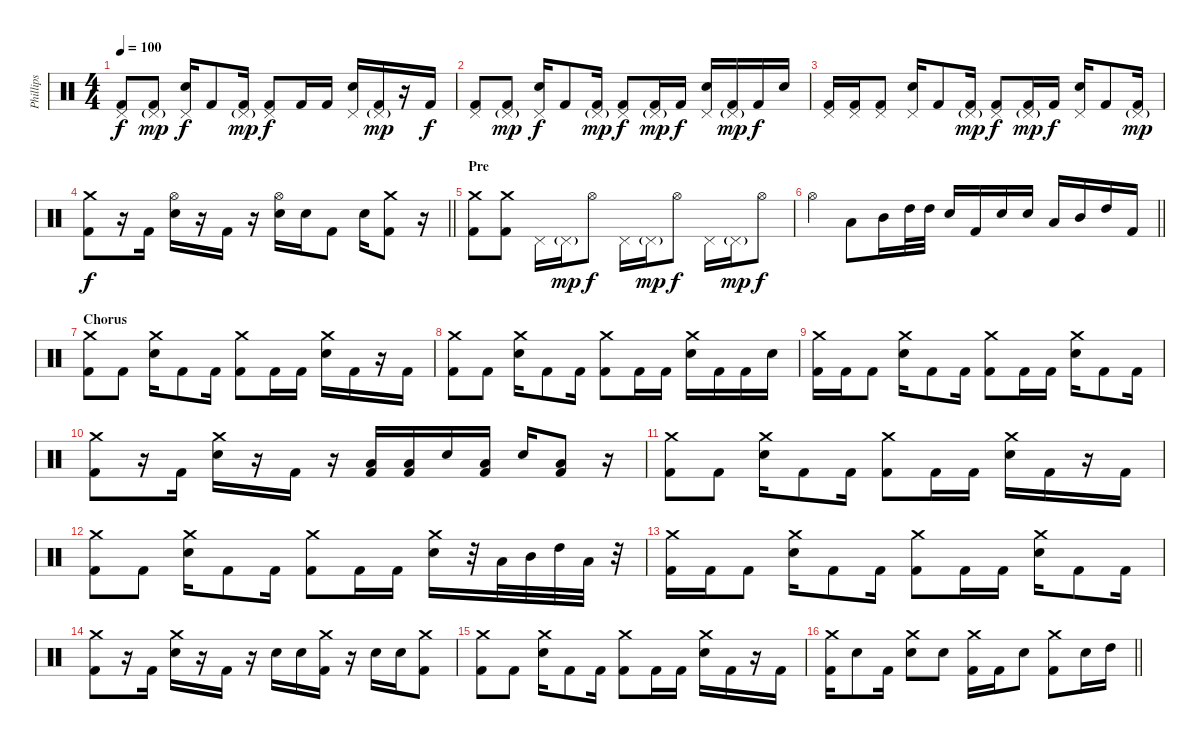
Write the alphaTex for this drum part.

\track ("Phillips" "Phillips") {instrument percussion}
\staff {score}
\articulation defaults
\ts (4 4)
\tempo 100
\clef neutral
\ks c
("Pedal Hi-Hat (hit)" "Kick (hit) 2").8{dy f} ("Pedal Hi-Hat (hit)"{g} "Kick (hit) 2").8{dy mp} ("Pedal Hi-Hat (hit)" "Electric Snare (hit)").16{dy f} "Kick (hit) 2".8 ("Pedal Hi-Hat (hit)"{g} "Kick (hit) 2").16{dy mp} ("Pedal Hi-Hat (hit)" "Kick (hit) 2").8{dy f} "Kick (hit) 2".16 "Kick (hit) 2".16 ("Pedal Hi-Hat (hit)" "Electric Snare (hit)").16 ("Pedal Hi-Hat (hit)"{g} "Kick (hit) 2").16{dy mp} r.16 "Kick (hit) 2".16{dy f} |
("Pedal Hi-Hat (hit)" "Kick (hit) 2").8 ("Pedal Hi-Hat (hit)"{g} "Kick (hit) 2").8{dy mp} ("Pedal Hi-Hat (hit)" "Electric Snare (hit)").16{dy f} "Kick (hit) 2".8 ("Pedal Hi-Hat (hit)"{g} "Kick (hit) 2").16{dy mp} ("Pedal Hi-Hat (hit)" "Kick (hit) 2").8{dy f} ("Pedal Hi-Hat (hit)"{g} "Kick (hit) 2").16{dy mp} "Kick (hit) 2".16{dy f} ("Pedal Hi-Hat (hit)" "Electric Snare (hit)").16 ("Pedal Hi-Hat (hit)"{g} "Kick (hit) 2").16{dy mp} "Kick (hit) 2".16{dy f} "Electric Snare (hit)".16 |
("Pedal Hi-Hat (hit)" "Kick (hit) 2").16 ("Pedal Hi-Hat (hit)" "Kick (hit) 2").16 ("Pedal Hi-Hat (hit)" "Kick (hit) 2").8 ("Pedal Hi-Hat (hit)" "Electric Snare (hit)").16 "Kick (hit) 2".8 ("Pedal Hi-Hat (hit)"{g} "Kick (hit) 2").16{dy mp} ("Pedal Hi-Hat (hit)" "Kick (hit) 2").8{dy f} ("Pedal Hi-Hat (hit)"{g} "Kick (hit) 2").16{dy mp} "Kick (hit) 2".16{dy f} ("Pedal Hi-Hat (hit)" "Electric Snare (hit)").16 "Kick (hit) 2".8 ("Pedal Hi-Hat (hit)"{g} "Kick (hit) 2").16{dy mp} |
\barLineRight lightlight
("Crash medium (hit)" "Kick (hit) 2").8{dy f} r.16 "Kick (hit) 2".16 ("Hi-Hat (open)" "Electric Snare (hit)").16 r.16 "Kick (hit) 2".16 r.16 ("Hi-Hat (open)" "Electric Snare (hit)").16 "Electric Snare (hit)".16 "Kick (hit) 2".8 "Electric Snare (hit)".16 ("Crash medium (hit)" "Kick (hit) 2").8 r.16 |
\section ("" "Pre")
("Kick (hit) 2" "Crash medium (hit)").8 ("Kick (hit) 2" "Crash medium (hit)").8 "Pedal Hi-Hat (hit)".16 "Pedal Hi-Hat (hit)"{g}.16{dy mp} "Hi-Hat (open)".8{dy f} "Pedal Hi-Hat (hit)".16 "Pedal Hi-Hat (hit)"{g}.16{dy mp} "Hi-Hat (open)".8{dy f} "Pedal Hi-Hat (hit)".16 "Pedal Hi-Hat (hit)"{g}.16{dy mp} "Hi-Hat (open)".8{dy f} |
\barLineRight lightlight "Hi-Hat (open)".4 "Low Tom (hit)".8 "Mid Tom (hit)".16 "High Tom (hit)".32 "High Tom (hit)".32 "Electric Snare (hit)".16 "Kick (hit) 2".16 "Electric Snare (hit)".16 "Electric Snare (hit)".16 "Low Tom (hit)".16 "Mid Tom (hit)".16 "High Tom (hit)".16 "Kick (hit) 2".16
|
\section ("" "Chorus")
("Crash medium (hit)" "Kick (hit) 2").8 "Kick (hit) 2".8 ("Crash medium (hit)" "Electric Snare (hit)").16 "Kick (hit) 2".8 "Kick (hit) 2".16 ("Crash medium (hit)" "Kick (hit) 2").8 "Kick (hit) 2".16 "Kick (hit) 2".16 ("Crash medium (hit)" "Electric Snare (hit)").16 "Kick (hit) 2".16 r.16 "Kick (hit) 2".16 |
("Crash medium (hit)" "Kick (hit) 2").8 "Kick (hit) 2".8 ("Crash medium (hit)" "Electric Snare (hit)").16 "Kick (hit) 2".8 "Kick (hit) 2".16 ("Crash medium (hit)" "Kick (hit) 2").8 "Kick (hit) 2".16 "Kick (hit) 2".16 ("Crash medium (hit)" "Electric Snare (hit)").16 "Kick (hit) 2".16 "Kick (hit) 2".16 "Electric Snare (hit)".16 |
("Crash medium (hit)" "Kick (hit) 2").16 "Kick (hit) 2".16 "Kick (hit) 2".8 ("Crash medium (hit)" "Electric Snare (hit)").16 "Kick (hit) 2".8 "Kick (hit) 2".16 ("Crash medium (hit)" "Kick (hit) 2").8 "Kick (hit) 2".16 "Kick (hit) 2".16 ("Crash medium (hit)" "Electric Snare (hit)").16 "Kick (hit) 2".8 "Kick (hit) 2".16 |
("Crash medium (hit)" "Kick (hit) 2").8 r.16 "Kick (hit) 2".16 ("Crash medium (hit)" "Electric Snare (hit)").16 r.16 "Kick (hit) 2".16 r.16 ("Low Tom (hit)" "Kick (hit) 2").16 ("Low Tom (hit)" "Kick (hit) 2").16 "Electric Snare (hit)".16 ("Low Tom (hit)" "Kick (hit) 2").16 "Electric Snare (hit)".16 ("Low Tom (hit)" "Kick (hit) 2").8 r.16 |
("Crash medium (hit)" "Kick (hit) 2").8 "Kick (hit) 2".8 ("Crash medium (hit)" "Electric Snare (hit)").16 "Kick (hit) 2".8 "Kick (hit) 2".16 ("Crash medium (hit)" "Kick (hit) 2").8 "Kick (hit) 2".16 "Kick (hit) 2".16 ("Crash medium (hit)" "Electric Snare (hit)").16 "Kick (hit) 2".16 r.16 "Kick (hit) 2".16 |
("Crash medium (hit)" "Kick (hit) 2").8 "Kick (hit) 2".8 ("Crash medium (hit)" "Electric Snare (hit)").16 "Kick (hit) 2".8 "Kick (hit) 2".16 ("Crash medium (hit)" "Kick (hit) 2").8 "Kick (hit) 2".16 "Kick (hit) 2".16 ("Crash medium (hit)" "Electric Snare (hit)").16 r.32 "Low Tom (hit)".32 "Mid Tom (hit)".32 "High Tom (hit)".32 "Low Tom (hit)".32 r.32 |
("Crash medium (hit)" "Kick (hit) 2").16 "Kick (hit) 2".16 "Kick (hit) 2".8 ("Crash medium (hit)" "Electric Snare (hit)").16 "Kick (hit) 2".8 "Kick (hit) 2".16 ("Crash medium (hit)" "Kick (hit) 2").8 "Kick (hit) 2".16 "Kick (hit) 2".16 ("Crash medium (hit)" "Electric Snare (hit)").16 "Kick (hit) 2".8 "Kick (hit) 2".16 |
("Crash medium (hit)" "Kick (hit) 2").8 r.16 "Kick (hit) 2".16 ("Crash medium (hit)" "Electric Snare (hit)").16 r.16 "Kick (hit) 2".16 r.16 "Electric Snare (hit)".16 "Electric Snare (hit)".16 ("Crash medium (hit)" "Kick (hit) 2").16 r.16 "Electric Snare (hit)".16 "Electric Snare (hit)".16 ("Crash medium (hit)" "Kick (hit) 2").8 |
("Crash medium (hit)" "Kick (hit) 2").8 "Kick (hit) 2".8 ("Crash medium (hit)" "Electric Snare (hit)").16 "Kick (hit) 2".8 "Kick (hit) 2".16 ("Crash medium (hit)" "Kick (hit) 2").8 "Kick (hit) 2".16 "Kick (hit) 2".16 ("Crash medium (hit)" "Electric Snare (hit)").16 "Kick (hit) 2".16 r.16 "Kick (hit) 2".16 |
\barLineRight lightlight
("Crash medium (hit)" "Kick (hit) 2").16 "Electric Snare (hit)".8 "Kick (hit) 2".16 ("Crash medium (hit)" "Electric Snare (hit)").8 "Electric Snare (hit)".8 ("Crash medium (hit)" "Kick (hit) 2").16 "Kick (hit) 2".16 "Electric Snare (hit)".8 ("Crash medium (hit)" "Kick (hit) 2").8 "Electric Snare (hit)".16 "High Tom (hit)".16
